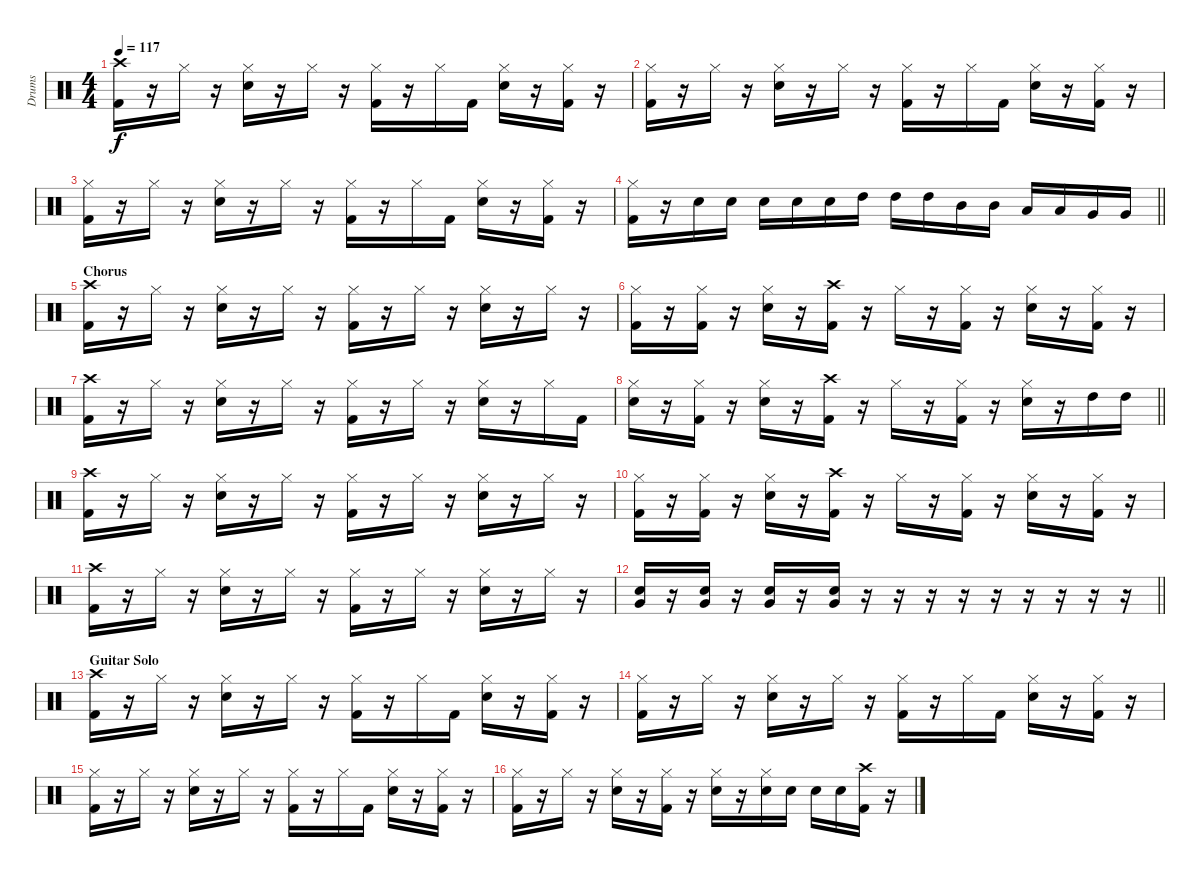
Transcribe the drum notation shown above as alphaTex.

\track ("Drums" "Drums") {instrument percussion}
\staff {score}
\articulation defaults
\ts (4 4)
\tempo 117
\clef neutral
\ks c
("Crash high (hit)" "Kick (hit) 2").16{dy f} r.16 "Hi-Hat (closed)".16 r.16 ("Hi-Hat (closed)" "Electric Snare (hit)").16 r.16 "Hi-Hat (closed)".16 r.16 ("Hi-Hat (closed)" "Kick (hit) 2").16 r.16 "Hi-Hat (closed)".16 "Kick (hit) 2".16 ("Hi-Hat (closed)" "Electric Snare (hit)").16 r.16 ("Hi-Hat (closed)" "Kick (hit) 2").16 r.16 |
("Hi-Hat (closed)" "Kick (hit) 2").16 r.16 "Hi-Hat (closed)".16 r.16 ("Hi-Hat (closed)" "Electric Snare (hit)").16 r.16 "Hi-Hat (closed)".16 r.16 ("Hi-Hat (closed)" "Kick (hit) 2").16 r.16 "Hi-Hat (closed)".16 "Kick (hit) 2".16 ("Hi-Hat (closed)" "Electric Snare (hit)").16 r.16 ("Hi-Hat (closed)" "Kick (hit) 2").16 r.16 |
("Hi-Hat (closed)" "Kick (hit) 2").16 r.16 "Hi-Hat (closed)".16 r.16 ("Hi-Hat (closed)" "Electric Snare (hit)").16 r.16 "Hi-Hat (closed)".16 r.16 ("Hi-Hat (closed)" "Kick (hit) 2").16 r.16 "Hi-Hat (closed)".16 "Kick (hit) 2".16 ("Hi-Hat (closed)" "Electric Snare (hit)").16 r.16 ("Hi-Hat (closed)" "Kick (hit) 2").16 r.16 |
\barLineRight lightlight
("Hi-Hat (closed)" "Kick (hit) 2").16 r.16 "Electric Snare (hit)".16 "Electric Snare (hit)".16 "Electric Snare (hit)".16 "Electric Snare (hit)".16 "Electric Snare (hit)".16 "High Tom (hit)".16 "High Tom (hit)".16 "High Tom (hit)".16 "Mid Tom (hit)".16 "Mid Tom (hit)".16 "Low Tom (hit)".16 "Low Tom (hit)".16 "Very Low Tom (hit)".16 "Very Low Tom (hit)".16 |
\section ("" "Chorus")
("Crash high (hit)" "Kick (hit) 2").16 r.16 "Hi-Hat (closed)".16 r.16 ("Hi-Hat (closed)" "Electric Snare (hit)").16 r.16 "Hi-Hat (closed)".16 r.16 ("Hi-Hat (closed)" "Kick (hit) 2").16 r.16 "Hi-Hat (closed)".16 r.16 ("Hi-Hat (closed)" "Electric Snare (hit)").16 r.16 "Hi-Hat (closed)".16 r.16 |
("Hi-Hat (closed)" "Kick (hit) 2").16 r.16 ("Hi-Hat (closed)" "Kick (hit) 2").16 r.16 ("Hi-Hat (closed)" "Electric Snare (hit)").16 r.16 ("Crash high (hit)" "Kick (hit) 2").16 r.16 "Hi-Hat (closed)".16 r.16 ("Hi-Hat (closed)" "Kick (hit) 2").16 r.16 ("Hi-Hat (closed)" "Electric Snare (hit)").16 r.16 ("Hi-Hat (closed)" "Kick (hit) 2").16 r.16 |
("Crash high (hit)" "Kick (hit) 2").16 r.16 "Hi-Hat (closed)".16 r.16 ("Hi-Hat (closed)" "Electric Snare (hit)").16 r.16 "Hi-Hat (closed)".16 r.16 ("Hi-Hat (closed)" "Kick (hit) 2").16 r.16 "Hi-Hat (closed)".16 r.16 ("Hi-Hat (closed)" "Electric Snare (hit)").16 r.16 "Hi-Hat (closed)".16 "Kick (hit) 2".16 |
\barLineRight lightlight
("Hi-Hat (closed)" "Electric Snare (hit)").16 r.16 ("Hi-Hat (closed)" "Kick (hit) 2").16 r.16 ("Hi-Hat (closed)" "Electric Snare (hit)").16 r.16 ("Crash high (hit)" "Kick (hit) 2").16 r.16 "Hi-Hat (closed)".16 r.16 ("Hi-Hat (closed)" "Kick (hit) 2").16 r.16 ("Hi-Hat (closed)" "Electric Snare (hit)").16 r.16 "High Tom (hit)".16 "High Tom (hit)".16 |
("Crash high (hit)" "Kick (hit) 2").16 r.16 "Hi-Hat (closed)".16 r.16 ("Hi-Hat (closed)" "Electric Snare (hit)").16 r.16 "Hi-Hat (closed)".16 r.16 ("Hi-Hat (closed)" "Kick (hit) 2").16 r.16 "Hi-Hat (closed)".16 r.16 ("Hi-Hat (closed)" "Electric Snare (hit)").16 r.16 "Hi-Hat (closed)".16 r.16 |
("Hi-Hat (closed)" "Kick (hit) 2").16 r.16 ("Hi-Hat (closed)" "Kick (hit) 2").16 r.16 ("Hi-Hat (closed)" "Electric Snare (hit)").16 r.16 ("Crash high (hit)" "Kick (hit) 2").16 r.16 "Hi-Hat (closed)".16 r.16 ("Hi-Hat (closed)" "Kick (hit) 2").16 r.16 ("Hi-Hat (closed)" "Electric Snare (hit)").16 r.16 ("Hi-Hat (closed)" "Kick (hit) 2").16 r.16 |
("Crash high (hit)" "Kick (hit) 2").16 r.16 "Hi-Hat (closed)".16 r.16 ("Hi-Hat (closed)" "Electric Snare (hit)").16 r.16 "Hi-Hat (closed)".16 r.16 ("Hi-Hat (closed)" "Kick (hit) 2").16 r.16 "Hi-Hat (closed)".16 r.16 ("Hi-Hat (closed)" "Electric Snare (hit)").16 r.16 "Hi-Hat (closed)".16 r.16 |
\barLineRight lightlight
("Very Low Tom (hit)" "Electric Snare (hit)").16 r.16 ("Very Low Tom (hit)" "Electric Snare (hit)").16 r.16 ("Very Low Tom (hit)" "Electric Snare (hit)").16 r.16 ("Very Low Tom (hit)" "Electric Snare (hit)").16 r.16 r.16 r.16 r.16 r.16 r.16 r.16 r.16 r.16 |
\section ("" "Guitar Solo")
("Crash high (hit)" "Kick (hit) 2").16 r.16 "Hi-Hat (closed)".16 r.16 ("Hi-Hat (closed)" "Electric Snare (hit)").16 r.16 "Hi-Hat (closed)".16 r.16 ("Hi-Hat (closed)" "Kick (hit) 2").16 r.16 "Hi-Hat (closed)".16 "Kick (hit) 2".16 ("Hi-Hat (closed)" "Electric Snare (hit)").16 r.16 ("Hi-Hat (closed)" "Kick (hit) 2").16 r.16 |
("Hi-Hat (closed)" "Kick (hit) 2").16 r.16 "Hi-Hat (closed)".16 r.16 ("Hi-Hat (closed)" "Electric Snare (hit)").16 r.16 "Hi-Hat (closed)".16 r.16 ("Hi-Hat (closed)" "Kick (hit) 2").16 r.16 "Hi-Hat (closed)".16 "Kick (hit) 2".16 ("Hi-Hat (closed)" "Electric Snare (hit)").16 r.16 ("Hi-Hat (closed)" "Kick (hit) 2").16 r.16 |
("Hi-Hat (closed)" "Kick (hit) 2").16 r.16 "Hi-Hat (closed)".16 r.16 ("Hi-Hat (closed)" "Electric Snare (hit)").16 r.16 "Hi-Hat (closed)".16 r.16 ("Hi-Hat (closed)" "Kick (hit) 2").16 r.16 "Hi-Hat (closed)".16 "Kick (hit) 2".16 ("Hi-Hat (closed)" "Electric Snare (hit)").16 r.16 ("Hi-Hat (closed)" "Kick (hit) 2").16 r.16 |
("Hi-Hat (closed)" "Kick (hit) 2").16 r.16 "Hi-Hat (closed)".16 r.16 ("Hi-Hat (closed)" "Electric Snare (hit)").16 r.16 ("Hi-Hat (closed)" "Kick (hit) 2").16 r.16 ("Hi-Hat (closed)" "Electric Snare (hit)").16 r.16 ("Hi-Hat (closed)" "Electric Snare (hit)").16 "Electric Snare (hit)".16 "Electric Snare (hit)".16 "Electric Snare (hit)".16 ("Crash high (hit)" "Kick (hit) 2").16 r.16
